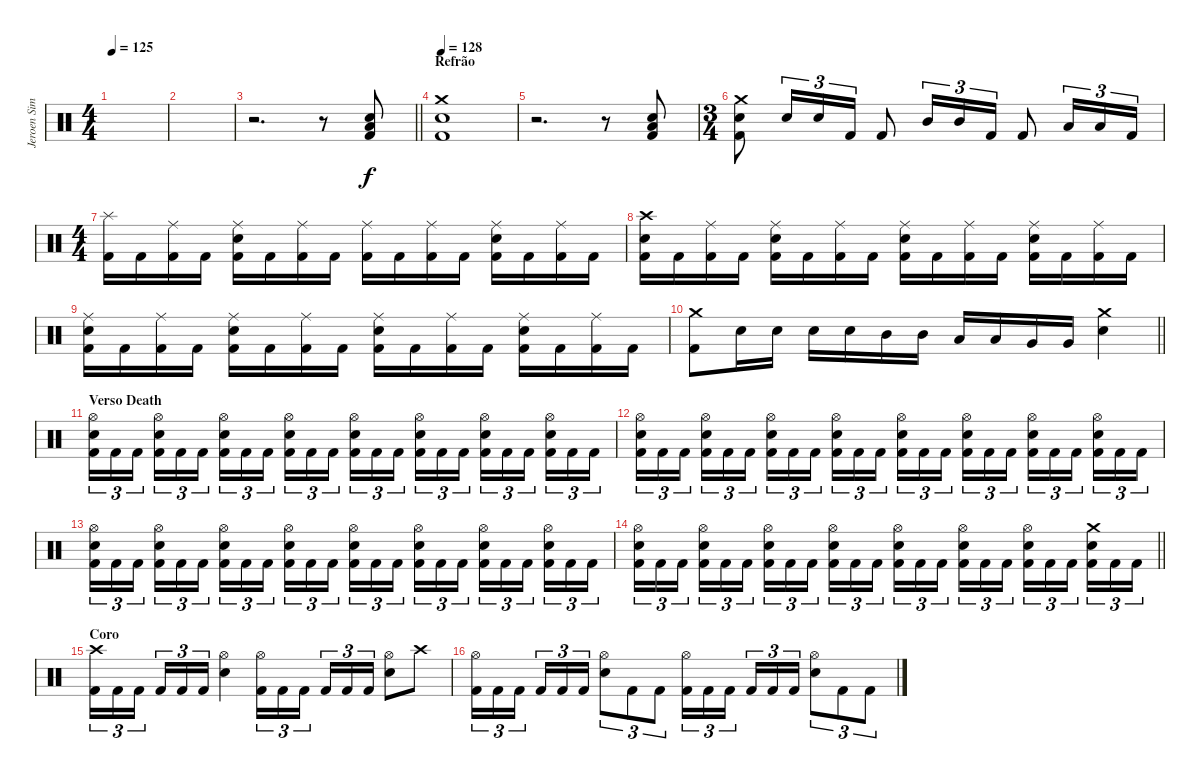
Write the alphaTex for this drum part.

\track ("Jeroen Simons" "Jeroen Sim") {instrument percussion}
\staff {score}
\articulation defaults
\ts (4 4)
\tempo 125
\clef neutral
\ks c
|
|
\barLineRight lightlight
r.2{d} r.8 ("Low Floor Tom (hit)" "Electric Snare (hit)" "Kick (hit) 2").8 |
\section ("" "Refrão")
\tempo 128
("Crash medium (hit)" "Electric Snare (hit)" "Kick (hit) 2").1 |
r.2{d} r.8 ("Low Floor Tom (hit)" "Electric Snare (hit)" "Kick (hit) 2").8 |
\ts (3 4)
("Crash medium (hit)" "Electric Snare (hit)" "Kick (hit) 2").8 "Electric Snare (hit)".16{tu (3 2)} "Electric Snare (hit)".16{tu (3 2)} "Kick (hit) 2".16{tu (3 2)} "Kick (hit) 2".8 "Mid Tom (hit)".16{tu (3 2)} "Mid Tom (hit)".16{tu (3 2)} "Kick (hit) 2".16{tu (3 2)} "Kick (hit) 2".8 "Low Tom (hit)".16{tu (3 2)} "Low Tom (hit)".16{tu (3 2)} "Kick (hit) 2".16{tu (3 2)} |
\ts (4 4)
("Splash (hit)" "Kick (hit) 2").16 "Kick (hit) 2".16 ("Ride (middle)" "Kick (hit) 2").16 "Kick (hit) 2".16 ("Ride (middle)" "Electric Snare (hit)" "Kick (hit) 2").16 "Kick (hit) 2".16 ("Ride (middle)" "Kick (hit) 2").16 "Kick (hit) 2".16 ("Ride (middle)" "Kick (hit) 2").16 "Kick (hit) 2".16 ("Ride (middle)" "Kick (hit) 2").16 "Kick (hit) 2".16 ("Ride (middle)" "Electric Snare (hit)" "Kick (hit) 2").16 "Kick (hit) 2".16 ("Ride (middle)" "Kick (hit) 2").16 "Kick (hit) 2".16 |
("Crash high (hit)" "Electric Snare (hit)" "Kick (hit) 2").16 "Kick (hit) 2".16 ("Ride (middle)" "Kick (hit) 2").16 "Kick (hit) 2".16 ("Ride (middle)" "Electric Snare (hit)" "Kick (hit) 2").16 "Kick (hit) 2".16 ("Ride (middle)" "Kick (hit) 2").16 "Kick (hit) 2".16 ("Ride (middle)" "Electric Snare (hit)" "Kick (hit) 2").16 "Kick (hit) 2".16 ("Ride (middle)" "Kick (hit) 2").16 "Kick (hit) 2".16 ("Ride (middle)" "Electric Snare (hit)" "Kick (hit) 2").16 "Kick (hit) 2".16 ("Ride (middle)" "Kick (hit) 2").16 "Kick (hit) 2".16 |
("Ride (middle)" "Electric Snare (hit)" "Kick (hit) 2").16 "Kick (hit) 2".16 ("Ride (middle)" "Kick (hit) 2").16 "Kick (hit) 2".16 ("Ride (middle)" "Electric Snare (hit)" "Kick (hit) 2").16 "Kick (hit) 2".16 ("Ride (middle)" "Kick (hit) 2").16 "Kick (hit) 2".16 ("Ride (middle)" "Electric Snare (hit)" "Kick (hit) 2").16 "Kick (hit) 2".16 ("Ride (middle)" "Kick (hit) 2").16 "Kick (hit) 2".16 ("Ride (middle)" "Electric Snare (hit)" "Kick (hit) 2").16 "Kick (hit) 2".16 ("Ride (middle)" "Kick (hit) 2").16 "Kick (hit) 2".16 |
\barLineRight lightlight
("Crash medium (hit)" "Kick (hit) 2").8 "Electric Snare (hit)".16 "Electric Snare (hit)".16 "Electric Snare (hit)".16 "Electric Snare (hit)".16 "Mid Tom (hit)".16 "Mid Tom (hit)".16 "Low Tom (hit)".16 "Low Tom (hit)".16 "Very Low Tom (hit)".16 "Very Low Tom (hit)".16 ("Crash medium (hit)" "Electric Snare (hit)").4 |
\section ("" "Verso Death")
("Hi-Hat (open)" "Electric Snare (hit)" "Kick (hit) 2").16{tu (3 2)} "Kick (hit) 2".16{tu (3 2)} "Kick (hit) 2".16{tu (3 2) beam splitsecondary} ("Hi-Hat (open)" "Electric Snare (hit)" "Kick (hit) 2").16{tu (3 2)} "Kick (hit) 2".16{tu (3 2)} "Kick (hit) 2".16{tu (3 2)} ("Hi-Hat (open)" "Electric Snare (hit)" "Kick (hit) 2").16{tu (3 2)} "Kick (hit) 2".16{tu (3 2)} "Kick (hit) 2".16{tu (3 2) beam splitsecondary} ("Hi-Hat (open)" "Electric Snare (hit)" "Kick (hit) 2").16{tu (3 2)} "Kick (hit) 2".16{tu (3 2)} "Kick (hit) 2".16{tu (3 2)} ("Hi-Hat (open)" "Electric Snare (hit)" "Kick (hit) 2").16{tu (3 2)} "Kick (hit) 2".16{tu (3 2)} "Kick (hit) 2".16{tu (3 2) beam splitsecondary} ("Hi-Hat (open)" "Electric Snare (hit)" "Kick (hit) 2").16{tu (3 2)} "Kick (hit) 2".16{tu (3 2)} "Kick (hit) 2".16{tu (3 2)} ("Hi-Hat (open)" "Electric Snare (hit)" "Kick (hit) 2").16{tu (3 2)} "Kick (hit) 2".16{tu (3 2)} "Kick (hit) 2".16{tu (3 2) beam splitsecondary} ("Hi-Hat (open)" "Electric Snare (hit)" "Kick (hit) 2").16{tu (3 2)} "Kick (hit) 2".16{tu (3 2)} "Kick (hit) 2".16{tu (3 2)} |
("Hi-Hat (open)" "Electric Snare (hit)" "Kick (hit) 2").16{tu (3 2)} "Kick (hit) 2".16{tu (3 2)} "Kick (hit) 2".16{tu (3 2) beam splitsecondary} ("Hi-Hat (open)" "Electric Snare (hit)" "Kick (hit) 2").16{tu (3 2)} "Kick (hit) 2".16{tu (3 2)} "Kick (hit) 2".16{tu (3 2)} ("Hi-Hat (open)" "Electric Snare (hit)" "Kick (hit) 2").16{tu (3 2)} "Kick (hit) 2".16{tu (3 2)} "Kick (hit) 2".16{tu (3 2) beam splitsecondary} ("Hi-Hat (open)" "Electric Snare (hit)" "Kick (hit) 2").16{tu (3 2)} "Kick (hit) 2".16{tu (3 2)} "Kick (hit) 2".16{tu (3 2)} ("Hi-Hat (open)" "Electric Snare (hit)" "Kick (hit) 2").16{tu (3 2)} "Kick (hit) 2".16{tu (3 2)} "Kick (hit) 2".16{tu (3 2) beam splitsecondary} ("Hi-Hat (open)" "Electric Snare (hit)" "Kick (hit) 2").16{tu (3 2)} "Kick (hit) 2".16{tu (3 2)} "Kick (hit) 2".16{tu (3 2)} ("Hi-Hat (open)" "Electric Snare (hit)" "Kick (hit) 2").16{tu (3 2)} "Kick (hit) 2".16{tu (3 2)} "Kick (hit) 2".16{tu (3 2) beam splitsecondary} ("Hi-Hat (open)" "Electric Snare (hit)" "Kick (hit) 2").16{tu (3 2)} "Kick (hit) 2".16{tu (3 2)} "Kick (hit) 2".16{tu (3 2)} |
("Hi-Hat (open)" "Electric Snare (hit)" "Kick (hit) 2").16{tu (3 2)} "Kick (hit) 2".16{tu (3 2)} "Kick (hit) 2".16{tu (3 2) beam splitsecondary} ("Hi-Hat (open)" "Electric Snare (hit)" "Kick (hit) 2").16{tu (3 2)} "Kick (hit) 2".16{tu (3 2)} "Kick (hit) 2".16{tu (3 2)} ("Hi-Hat (open)" "Electric Snare (hit)" "Kick (hit) 2").16{tu (3 2)} "Kick (hit) 2".16{tu (3 2)} "Kick (hit) 2".16{tu (3 2) beam splitsecondary} ("Hi-Hat (open)" "Electric Snare (hit)" "Kick (hit) 2").16{tu (3 2)} "Kick (hit) 2".16{tu (3 2)} "Kick (hit) 2".16{tu (3 2)} ("Hi-Hat (open)" "Electric Snare (hit)" "Kick (hit) 2").16{tu (3 2)} "Kick (hit) 2".16{tu (3 2)} "Kick (hit) 2".16{tu (3 2) beam splitsecondary} ("Hi-Hat (open)" "Electric Snare (hit)" "Kick (hit) 2").16{tu (3 2)} "Kick (hit) 2".16{tu (3 2)} "Kick (hit) 2".16{tu (3 2)} ("Hi-Hat (open)" "Electric Snare (hit)" "Kick (hit) 2").16{tu (3 2)} "Kick (hit) 2".16{tu (3 2)} "Kick (hit) 2".16{tu (3 2) beam splitsecondary} ("Hi-Hat (open)" "Electric Snare (hit)" "Kick (hit) 2").16{tu (3 2)} "Kick (hit) 2".16{tu (3 2)} "Kick (hit) 2".16{tu (3 2)} |
\barLineRight lightlight
("Hi-Hat (open)" "Electric Snare (hit)" "Kick (hit) 2").16{tu (3 2)} "Kick (hit) 2".16{tu (3 2)} "Kick (hit) 2".16{tu (3 2) beam splitsecondary} ("Hi-Hat (open)" "Electric Snare (hit)" "Kick (hit) 2").16{tu (3 2)} "Kick (hit) 2".16{tu (3 2)} "Kick (hit) 2".16{tu (3 2)} ("Hi-Hat (open)" "Electric Snare (hit)" "Kick (hit) 2").16{tu (3 2)} "Kick (hit) 2".16{tu (3 2)} "Kick (hit) 2".16{tu (3 2) beam splitsecondary} ("Hi-Hat (open)" "Electric Snare (hit)" "Kick (hit) 2").16{tu (3 2)} "Kick (hit) 2".16{tu (3 2)} "Kick (hit) 2".16{tu (3 2)} ("Hi-Hat (open)" "Electric Snare (hit)" "Kick (hit) 2").16{tu (3 2)} "Kick (hit) 2".16{tu (3 2)} "Kick (hit) 2".16{tu (3 2) beam splitsecondary} ("Hi-Hat (open)" "Electric Snare (hit)" "Kick (hit) 2").16{tu (3 2)} "Kick (hit) 2".16{tu (3 2)} "Kick (hit) 2".16{tu (3 2)} ("Hi-Hat (open)" "Electric Snare (hit)" "Kick (hit) 2").16{tu (3 2)} "Kick (hit) 2".16{tu (3 2)} "Kick (hit) 2".16{tu (3 2) beam splitsecondary} ("Crash medium (hit)" "Electric Snare (hit)" "Kick (hit) 2").16{tu (3 2)} "Kick (hit) 2".16{tu (3 2)} "Kick (hit) 2".16{tu (3 2)} |
\section ("" "Coro")
("Crash high (hit)" "Kick (hit) 2").16{tu (3 2)} "Kick (hit) 2".16{tu (3 2)} "Kick (hit) 2".16{tu (3 2) beam splitsecondary} "Kick (hit) 2".16{tu (3 2)} "Kick (hit) 2".16{tu (3 2)} "Kick (hit) 2".16{tu (3 2)} ("Hi-Hat (open)" "Electric Snare (hit)").4 ("Hi-Hat (open)" "Kick (hit) 2").16{tu (3 2)} "Kick (hit) 2".16{tu (3 2)} "Kick (hit) 2".16{tu (3 2) beam splitsecondary} "Kick (hit) 2".16{tu (3 2)} "Kick (hit) 2".16{tu (3 2)} "Kick (hit) 2".16{tu (3 2)} ("Hi-Hat (open)" "Electric Snare (hit)").8 "Crash high (hit)".8 |
("Hi-Hat (open)" "Kick (hit) 2").16{tu (3 2)} "Kick (hit) 2".16{tu (3 2)} "Kick (hit) 2".16{tu (3 2) beam splitsecondary} "Kick (hit) 2".16{tu (3 2)} "Kick (hit) 2".16{tu (3 2)} "Kick (hit) 2".16{tu (3 2)} ("Hi-Hat (open)" "Electric Snare (hit)").8{tu (3 2)} "Kick (hit) 2".8{tu (3 2)} "Kick (hit) 2".8{tu (3 2)} ("Hi-Hat (open)" "Kick (hit) 2").16{tu (3 2)} "Kick (hit) 2".16{tu (3 2)} "Kick (hit) 2".16{tu (3 2) beam splitsecondary} "Kick (hit) 2".16{tu (3 2)} "Kick (hit) 2".16{tu (3 2)} "Kick (hit) 2".16{tu (3 2)} ("Hi-Hat (open)" "Electric Snare (hit)").8{tu (3 2)} "Kick (hit) 2".8{tu (3 2)} "Kick (hit) 2".8{tu (3 2)}
